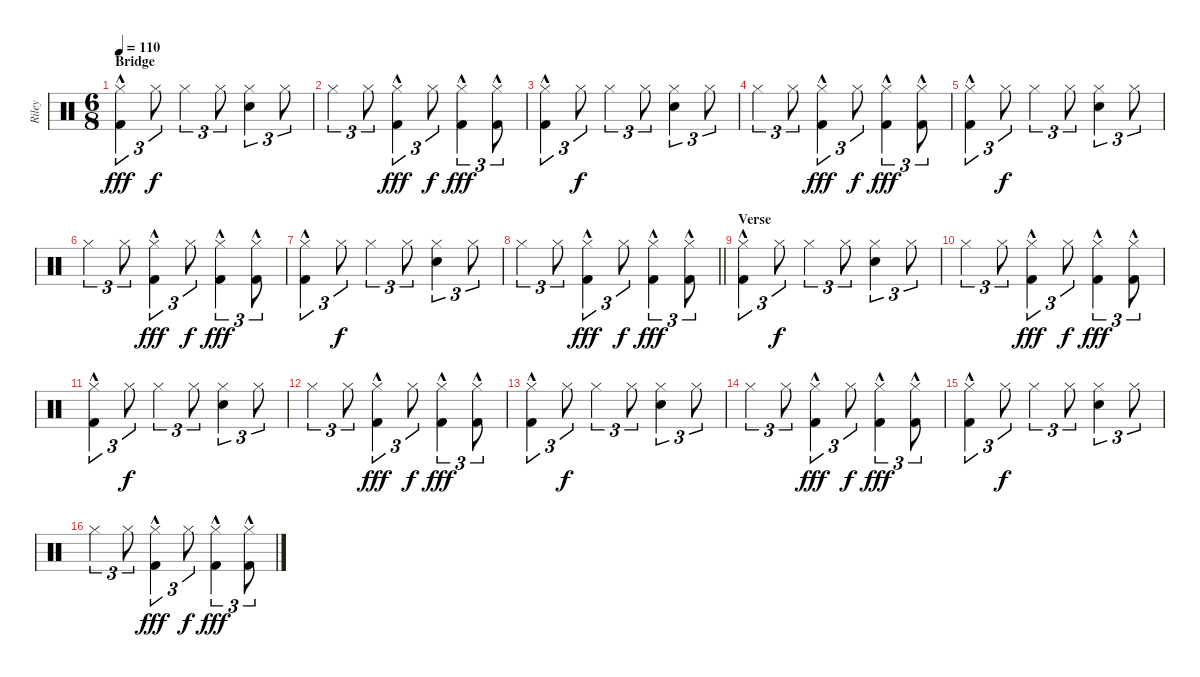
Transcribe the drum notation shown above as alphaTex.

\track ("Riley" "Riley") {instrument percussion}
\staff {score}
\articulation defaults
\ts (6 8)
\section ("" "Bridge")
\tempo 110
\clef neutral
\ks c
("Hi-Hat (closed)" "Kick (hit) 2"{hac}).4{tu (3 2) dy fff} "Hi-Hat (closed)".8{tu (3 2) dy f} "Hi-Hat (closed)".4{tu (3 2)} "Hi-Hat (closed)".8{tu (3 2)} ("Hi-Hat (closed)" "Electric Snare (hit)").4{tu (3 2)} "Hi-Hat (closed)".8{tu (3 2)} |
"Hi-Hat (closed)".4{tu (3 2)} "Hi-Hat (closed)".8{tu (3 2)} ("Hi-Hat (closed)" "Kick (hit) 2"{hac}).4{tu (3 2) dy fff} "Hi-Hat (closed)".8{tu (3 2) dy f} ("Hi-Hat (closed)" "Kick (hit) 2"{hac}).4{tu (3 2) dy fff} ("Hi-Hat (closed)" "Kick (hit) 2"{hac}).8{tu (3 2)} |
("Hi-Hat (closed)" "Kick (hit) 2"{hac}).4{tu (3 2)} "Hi-Hat (closed)".8{tu (3 2) dy f} "Hi-Hat (closed)".4{tu (3 2)} "Hi-Hat (closed)".8{tu (3 2)} ("Hi-Hat (closed)" "Electric Snare (hit)").4{tu (3 2)} "Hi-Hat (closed)".8{tu (3 2)} |
"Hi-Hat (closed)".4{tu (3 2)} "Hi-Hat (closed)".8{tu (3 2)} ("Hi-Hat (closed)" "Kick (hit) 2"{hac}).4{tu (3 2) dy fff} "Hi-Hat (closed)".8{tu (3 2) dy f} ("Hi-Hat (closed)" "Kick (hit) 2"{hac}).4{tu (3 2) dy fff} ("Hi-Hat (closed)" "Kick (hit) 2"{hac}).8{tu (3 2)} |
("Hi-Hat (closed)" "Kick (hit) 2"{hac}).4{tu (3 2)} "Hi-Hat (closed)".8{tu (3 2) dy f} "Hi-Hat (closed)".4{tu (3 2)} "Hi-Hat (closed)".8{tu (3 2)} ("Hi-Hat (closed)" "Electric Snare (hit)").4{tu (3 2)} "Hi-Hat (closed)".8{tu (3 2)} |
"Hi-Hat (closed)".4{tu (3 2)} "Hi-Hat (closed)".8{tu (3 2)} ("Hi-Hat (closed)" "Kick (hit) 2"{hac}).4{tu (3 2) dy fff} "Hi-Hat (closed)".8{tu (3 2) dy f} ("Hi-Hat (closed)" "Kick (hit) 2"{hac}).4{tu (3 2) dy fff} ("Hi-Hat (closed)" "Kick (hit) 2"{hac}).8{tu (3 2)} |
("Hi-Hat (closed)" "Kick (hit) 2"{hac}).4{tu (3 2)} "Hi-Hat (closed)".8{tu (3 2) dy f} "Hi-Hat (closed)".4{tu (3 2)} "Hi-Hat (closed)".8{tu (3 2)} ("Hi-Hat (closed)" "Electric Snare (hit)").4{tu (3 2)} "Hi-Hat (closed)".8{tu (3 2)} |
\barLineRight lightlight "Hi-Hat (closed)".4{tu (3 2)} "Hi-Hat (closed)".8{tu (3 2)}
("Hi-Hat (closed)" "Kick (hit) 2"{hac}).4{tu (3 2) dy fff} "Hi-Hat (closed)".8{tu (3 2) dy f} ("Hi-Hat (closed)" "Kick (hit) 2"{hac}).4{tu (3 2) dy fff} ("Hi-Hat (closed)" "Kick (hit) 2"{hac}).8{tu (3 2)} |
\section ("" "Verse")
("Hi-Hat (closed)" "Kick (hit) 2"{hac}).4{tu (3 2)} "Hi-Hat (closed)".8{tu (3 2) dy f} "Hi-Hat (closed)".4{tu (3 2)} "Hi-Hat (closed)".8{tu (3 2)} ("Hi-Hat (closed)" "Electric Snare (hit)").4{tu (3 2)} "Hi-Hat (closed)".8{tu (3 2)} |
"Hi-Hat (closed)".4{tu (3 2)} "Hi-Hat (closed)".8{tu (3 2)} ("Hi-Hat (closed)" "Kick (hit) 2"{hac}).4{tu (3 2) dy fff} "Hi-Hat (closed)".8{tu (3 2) dy f} ("Hi-Hat (closed)" "Kick (hit) 2"{hac}).4{tu (3 2) dy fff} ("Hi-Hat (closed)" "Kick (hit) 2"{hac}).8{tu (3 2)} |
("Hi-Hat (closed)" "Kick (hit) 2"{hac}).4{tu (3 2)} "Hi-Hat (closed)".8{tu (3 2) dy f} "Hi-Hat (closed)".4{tu (3 2)} "Hi-Hat (closed)".8{tu (3 2)} ("Hi-Hat (closed)" "Electric Snare (hit)").4{tu (3 2)} "Hi-Hat (closed)".8{tu (3 2)} |
"Hi-Hat (closed)".4{tu (3 2)} "Hi-Hat (closed)".8{tu (3 2)} ("Hi-Hat (closed)" "Kick (hit) 2"{hac}).4{tu (3 2) dy fff} "Hi-Hat (closed)".8{tu (3 2) dy f} ("Hi-Hat (closed)" "Kick (hit) 2"{hac}).4{tu (3 2) dy fff} ("Hi-Hat (closed)" "Kick (hit) 2"{hac}).8{tu (3 2)} |
("Hi-Hat (closed)" "Kick (hit) 2"{hac}).4{tu (3 2)} "Hi-Hat (closed)".8{tu (3 2) dy f} "Hi-Hat (closed)".4{tu (3 2)} "Hi-Hat (closed)".8{tu (3 2)} ("Hi-Hat (closed)" "Electric Snare (hit)").4{tu (3 2)} "Hi-Hat (closed)".8{tu (3 2)} |
"Hi-Hat (closed)".4{tu (3 2)} "Hi-Hat (closed)".8{tu (3 2)} ("Hi-Hat (closed)" "Kick (hit) 2"{hac}).4{tu (3 2) dy fff} "Hi-Hat (closed)".8{tu (3 2) dy f} ("Hi-Hat (closed)" "Kick (hit) 2"{hac}).4{tu (3 2) dy fff} ("Hi-Hat (closed)" "Kick (hit) 2"{hac}).8{tu (3 2)} |
("Hi-Hat (closed)" "Kick (hit) 2"{hac}).4{tu (3 2)} "Hi-Hat (closed)".8{tu (3 2) dy f} "Hi-Hat (closed)".4{tu (3 2)} "Hi-Hat (closed)".8{tu (3 2)} ("Hi-Hat (closed)" "Electric Snare (hit)").4{tu (3 2)} "Hi-Hat (closed)".8{tu (3 2)} |
"Hi-Hat (closed)".4{tu (3 2)} "Hi-Hat (closed)".8{tu (3 2)} ("Hi-Hat (closed)" "Kick (hit) 2"{hac}).4{tu (3 2) dy fff} "Hi-Hat (closed)".8{tu (3 2) dy f} ("Hi-Hat (closed)" "Kick (hit) 2"{hac}).4{tu (3 2) dy fff} ("Hi-Hat (closed)" "Kick (hit) 2"{hac}).8{tu (3 2)}
